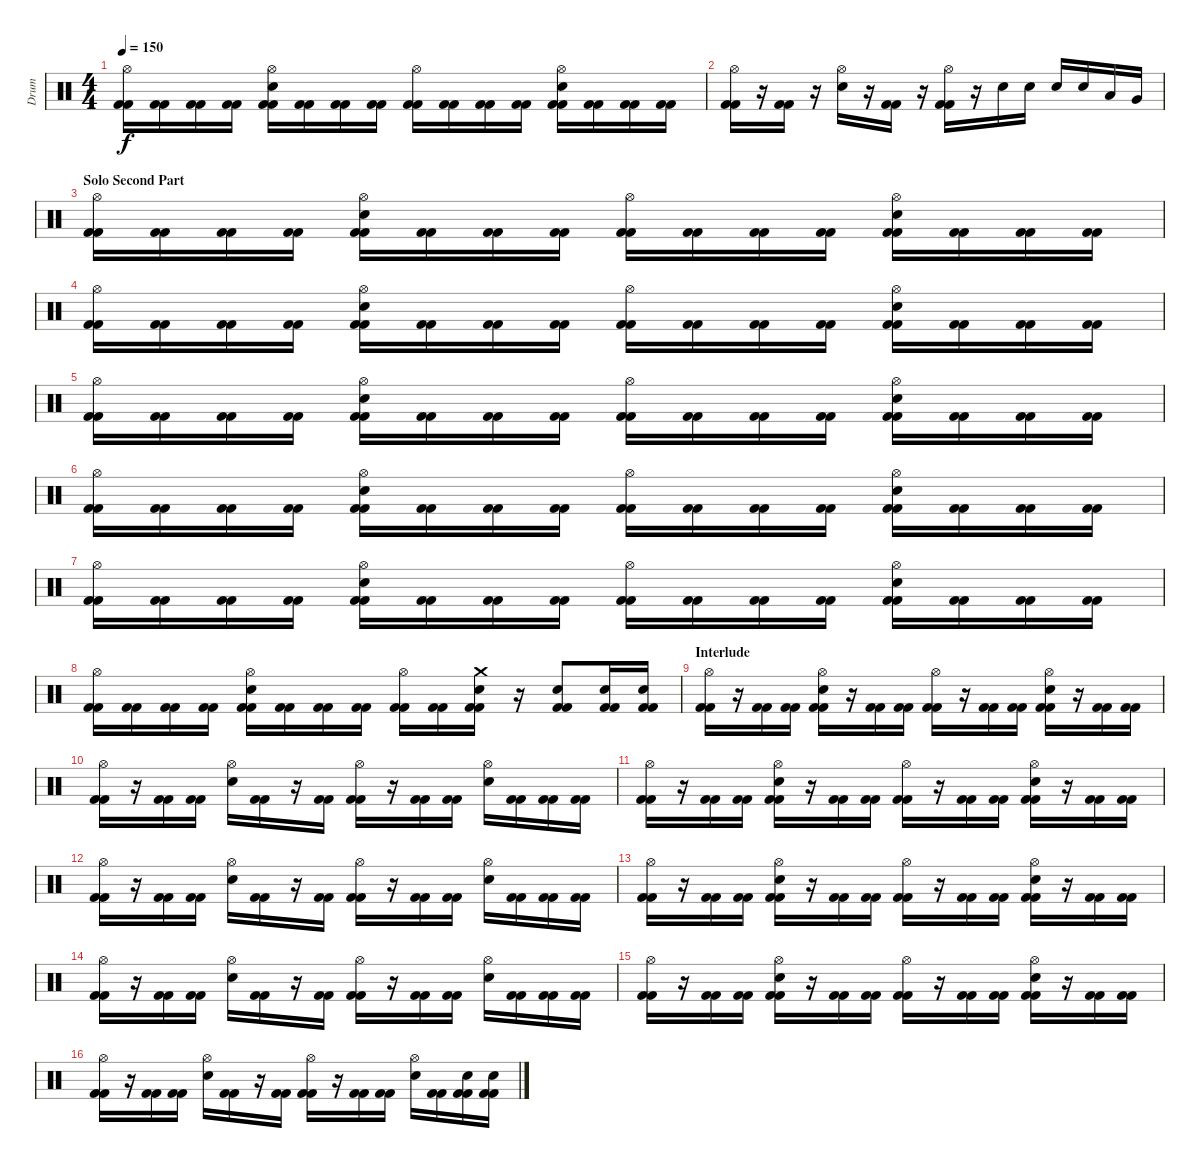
\track ("Drum" "Drum") {instrument percussion}
\staff {score}
\articulation defaults
\ts (4 4)
\tempo 150
\clef neutral
\ks c
("Hi-Hat (open)" "Kick (hit) 2" "Kick (hit) 2").16{dy f} ("Kick (hit) 2" "Kick (hit) 2").16 ("Kick (hit) 2" "Kick (hit) 2").16 ("Kick (hit) 2" "Kick (hit) 2").16 ("Snare (hit) 2" "Hi-Hat (open)" "Kick (hit) 2" "Kick (hit) 2").16 ("Kick (hit) 2" "Kick (hit) 2").16 ("Kick (hit) 2" "Kick (hit) 2").16 ("Kick (hit) 2" "Kick (hit) 2").16 ("Hi-Hat (open)" "Kick (hit) 2" "Kick (hit) 2").16 ("Kick (hit) 2" "Kick (hit) 2").16 ("Kick (hit) 2" "Kick (hit) 2").16 ("Kick (hit) 2" "Kick (hit) 2").16 ("Snare (hit) 2" "Hi-Hat (open)" "Kick (hit) 2" "Kick (hit) 2").16 ("Kick (hit) 2" "Kick (hit) 2").16 ("Kick (hit) 2" "Kick (hit) 2").16 ("Kick (hit) 2" "Kick (hit) 2").16 |
("Hi-Hat (open)" "Kick (hit) 2" "Kick (hit) 2").16 r.16 ("Kick (hit) 2" "Kick (hit) 2").16 r.16 ("Snare (hit) 2" "Hi-Hat (open)").16 r.16 ("Kick (hit) 2" "Kick (hit) 2").16 r.16 ("Hi-Hat (open)" "Kick (hit) 2" "Kick (hit) 2").16 r.16 "Snare (hit) 2".16 "Snare (hit) 2".16 "Snare (hit) 2".16 "Snare (hit) 2".16 "Low Tom (hit)".16 "Very Low Tom (hit)".16 |
\section ("" "Solo Second Part")
("Hi-Hat (open)" "Kick (hit) 2" "Kick (hit) 2").16 ("Kick (hit) 2" "Kick (hit) 2").16 ("Kick (hit) 2" "Kick (hit) 2").16 ("Kick (hit) 2" "Kick (hit) 2").16 ("Snare (hit) 2" "Hi-Hat (open)" "Kick (hit) 2" "Kick (hit) 2").16 ("Kick (hit) 2" "Kick (hit) 2").16 ("Kick (hit) 2" "Kick (hit) 2").16 ("Kick (hit) 2" "Kick (hit) 2").16 ("Hi-Hat (open)" "Kick (hit) 2" "Kick (hit) 2").16 ("Kick (hit) 2" "Kick (hit) 2").16 ("Kick (hit) 2" "Kick (hit) 2").16 ("Kick (hit) 2" "Kick (hit) 2").16 ("Snare (hit) 2" "Hi-Hat (open)" "Kick (hit) 2" "Kick (hit) 2").16 ("Kick (hit) 2" "Kick (hit) 2").16 ("Kick (hit) 2" "Kick (hit) 2").16 ("Kick (hit) 2" "Kick (hit) 2").16 |
("Hi-Hat (open)" "Kick (hit) 2" "Kick (hit) 2").16 ("Kick (hit) 2" "Kick (hit) 2").16 ("Kick (hit) 2" "Kick (hit) 2").16 ("Kick (hit) 2" "Kick (hit) 2").16 ("Snare (hit) 2" "Hi-Hat (open)" "Kick (hit) 2" "Kick (hit) 2").16 ("Kick (hit) 2" "Kick (hit) 2").16 ("Kick (hit) 2" "Kick (hit) 2").16 ("Kick (hit) 2" "Kick (hit) 2").16 ("Hi-Hat (open)" "Kick (hit) 2" "Kick (hit) 2").16 ("Kick (hit) 2" "Kick (hit) 2").16 ("Kick (hit) 2" "Kick (hit) 2").16 ("Kick (hit) 2" "Kick (hit) 2").16 ("Snare (hit) 2" "Hi-Hat (open)" "Kick (hit) 2" "Kick (hit) 2").16 ("Kick (hit) 2" "Kick (hit) 2").16 ("Kick (hit) 2" "Kick (hit) 2").16 ("Kick (hit) 2" "Kick (hit) 2").16 |
("Hi-Hat (open)" "Kick (hit) 2" "Kick (hit) 2").16 ("Kick (hit) 2" "Kick (hit) 2").16 ("Kick (hit) 2" "Kick (hit) 2").16 ("Kick (hit) 2" "Kick (hit) 2").16 ("Snare (hit) 2" "Hi-Hat (open)" "Kick (hit) 2" "Kick (hit) 2").16 ("Kick (hit) 2" "Kick (hit) 2").16 ("Kick (hit) 2" "Kick (hit) 2").16 ("Kick (hit) 2" "Kick (hit) 2").16 ("Hi-Hat (open)" "Kick (hit) 2" "Kick (hit) 2").16 ("Kick (hit) 2" "Kick (hit) 2").16 ("Kick (hit) 2" "Kick (hit) 2").16 ("Kick (hit) 2" "Kick (hit) 2").16 ("Snare (hit) 2" "Hi-Hat (open)" "Kick (hit) 2" "Kick (hit) 2").16 ("Kick (hit) 2" "Kick (hit) 2").16 ("Kick (hit) 2" "Kick (hit) 2").16 ("Kick (hit) 2" "Kick (hit) 2").16 |
("Hi-Hat (open)" "Kick (hit) 2" "Kick (hit) 2").16 ("Kick (hit) 2" "Kick (hit) 2").16 ("Kick (hit) 2" "Kick (hit) 2").16 ("Kick (hit) 2" "Kick (hit) 2").16 ("Snare (hit) 2" "Hi-Hat (open)" "Kick (hit) 2" "Kick (hit) 2").16 ("Kick (hit) 2" "Kick (hit) 2").16 ("Kick (hit) 2" "Kick (hit) 2").16 ("Kick (hit) 2" "Kick (hit) 2").16 ("Hi-Hat (open)" "Kick (hit) 2" "Kick (hit) 2").16 ("Kick (hit) 2" "Kick (hit) 2").16 ("Kick (hit) 2" "Kick (hit) 2").16 ("Kick (hit) 2" "Kick (hit) 2").16 ("Snare (hit) 2" "Hi-Hat (open)" "Kick (hit) 2" "Kick (hit) 2").16 ("Kick (hit) 2" "Kick (hit) 2").16 ("Kick (hit) 2" "Kick (hit) 2").16 ("Kick (hit) 2" "Kick (hit) 2").16 |
("Hi-Hat (open)" "Kick (hit) 2" "Kick (hit) 2").16 ("Kick (hit) 2" "Kick (hit) 2").16 ("Kick (hit) 2" "Kick (hit) 2").16 ("Kick (hit) 2" "Kick (hit) 2").16 ("Snare (hit) 2" "Hi-Hat (open)" "Kick (hit) 2" "Kick (hit) 2").16 ("Kick (hit) 2" "Kick (hit) 2").16 ("Kick (hit) 2" "Kick (hit) 2").16 ("Kick (hit) 2" "Kick (hit) 2").16 ("Hi-Hat (open)" "Kick (hit) 2" "Kick (hit) 2").16 ("Kick (hit) 2" "Kick (hit) 2").16 ("Kick (hit) 2" "Kick (hit) 2").16 ("Kick (hit) 2" "Kick (hit) 2").16 ("Snare (hit) 2" "Hi-Hat (open)" "Kick (hit) 2" "Kick (hit) 2").16 ("Kick (hit) 2" "Kick (hit) 2").16 ("Kick (hit) 2" "Kick (hit) 2").16 ("Kick (hit) 2" "Kick (hit) 2").16 |
("Hi-Hat (open)" "Kick (hit) 2" "Kick (hit) 2").16 ("Kick (hit) 2" "Kick (hit) 2").16 ("Kick (hit) 2" "Kick (hit) 2").16 ("Kick (hit) 2" "Kick (hit) 2").16 ("Snare (hit) 2" "Hi-Hat (open)" "Kick (hit) 2" "Kick (hit) 2").16 ("Kick (hit) 2" "Kick (hit) 2").16 ("Kick (hit) 2" "Kick (hit) 2").16 ("Kick (hit) 2" "Kick (hit) 2").16 ("Hi-Hat (open)" "Kick (hit) 2" "Kick (hit) 2").16 ("Kick (hit) 2" "Kick (hit) 2").16 ("Crash medium (hit)" "Snare (hit) 2" "Kick (hit) 2" "Kick (hit) 2").16 r.16 ("Snare (hit) 2" "Kick (hit) 2" "Kick (hit) 2").8 ("Snare (hit) 2" "Kick (hit) 2" "Kick (hit) 2").16 ("Snare (hit) 2" "Kick (hit) 2" "Kick (hit) 2").16 |
\section ("" "Interlude")
("Hi-Hat (open)" "Kick (hit) 2" "Kick (hit) 2").16 r.16 ("Kick (hit) 2" "Kick (hit) 2").16 ("Kick (hit) 2" "Kick (hit) 2").16 ("Snare (hit) 2" "Hi-Hat (open)" "Kick (hit) 2" "Kick (hit) 2").16 r.16 ("Kick (hit) 2" "Kick (hit) 2").16 ("Kick (hit) 2" "Kick (hit) 2").16 ("Hi-Hat (open)" "Kick (hit) 2" "Kick (hit) 2").16 r.16 ("Kick (hit) 2" "Kick (hit) 2").16 ("Kick (hit) 2" "Kick (hit) 2").16 ("Snare (hit) 2" "Hi-Hat (open)" "Kick (hit) 2" "Kick (hit) 2").16 r.16 ("Kick (hit) 2" "Kick (hit) 2").16 ("Kick (hit) 2" "Kick (hit) 2").16 |
("Hi-Hat (open)" "Kick (hit) 2" "Kick (hit) 2").16 r.16 ("Kick (hit) 2" "Kick (hit) 2").16 ("Kick (hit) 2" "Kick (hit) 2").16 ("Snare (hit) 2" "Hi-Hat (open)").16 ("Kick (hit) 2" "Kick (hit) 2").16 r.16 ("Kick (hit) 2" "Kick (hit) 2").16 ("Hi-Hat (open)" "Kick (hit) 2" "Kick (hit) 2").16 r.16 ("Kick (hit) 2" "Kick (hit) 2").16 ("Kick (hit) 2" "Kick (hit) 2").16 ("Snare (hit) 2" "Hi-Hat (open)").16 ("Kick (hit) 2" "Kick (hit) 2").16 ("Kick (hit) 2" "Kick (hit) 2").16 ("Kick (hit) 2" "Kick (hit) 2").16 |
("Hi-Hat (open)" "Kick (hit) 2" "Kick (hit) 2").16 r.16 ("Kick (hit) 2" "Kick (hit) 2").16 ("Kick (hit) 2" "Kick (hit) 2").16 ("Snare (hit) 2" "Hi-Hat (open)" "Kick (hit) 2" "Kick (hit) 2").16 r.16 ("Kick (hit) 2" "Kick (hit) 2").16 ("Kick (hit) 2" "Kick (hit) 2").16 ("Hi-Hat (open)" "Kick (hit) 2" "Kick (hit) 2").16 r.16 ("Kick (hit) 2" "Kick (hit) 2").16 ("Kick (hit) 2" "Kick (hit) 2").16 ("Snare (hit) 2" "Hi-Hat (open)" "Kick (hit) 2" "Kick (hit) 2").16 r.16 ("Kick (hit) 2" "Kick (hit) 2").16 ("Kick (hit) 2" "Kick (hit) 2").16 |
("Hi-Hat (open)" "Kick (hit) 2" "Kick (hit) 2").16 r.16 ("Kick (hit) 2" "Kick (hit) 2").16 ("Kick (hit) 2" "Kick (hit) 2").16 ("Snare (hit) 2" "Hi-Hat (open)").16 ("Kick (hit) 2" "Kick (hit) 2").16 r.16 ("Kick (hit) 2" "Kick (hit) 2").16 ("Hi-Hat (open)" "Kick (hit) 2" "Kick (hit) 2").16 r.16 ("Kick (hit) 2" "Kick (hit) 2").16 ("Kick (hit) 2" "Kick (hit) 2").16 ("Snare (hit) 2" "Hi-Hat (open)").16 ("Kick (hit) 2" "Kick (hit) 2").16 ("Kick (hit) 2" "Kick (hit) 2").16 ("Kick (hit) 2" "Kick (hit) 2").16 |
("Hi-Hat (open)" "Kick (hit) 2" "Kick (hit) 2").16 r.16 ("Kick (hit) 2" "Kick (hit) 2").16 ("Kick (hit) 2" "Kick (hit) 2").16 ("Snare (hit) 2" "Hi-Hat (open)" "Kick (hit) 2" "Kick (hit) 2").16 r.16 ("Kick (hit) 2" "Kick (hit) 2").16 ("Kick (hit) 2" "Kick (hit) 2").16 ("Hi-Hat (open)" "Kick (hit) 2" "Kick (hit) 2").16 r.16 ("Kick (hit) 2" "Kick (hit) 2").16 ("Kick (hit) 2" "Kick (hit) 2").16 ("Snare (hit) 2" "Hi-Hat (open)" "Kick (hit) 2" "Kick (hit) 2").16 r.16 ("Kick (hit) 2" "Kick (hit) 2").16 ("Kick (hit) 2" "Kick (hit) 2").16 |
("Hi-Hat (open)" "Kick (hit) 2" "Kick (hit) 2").16 r.16 ("Kick (hit) 2" "Kick (hit) 2").16 ("Kick (hit) 2" "Kick (hit) 2").16 ("Snare (hit) 2" "Hi-Hat (open)").16 ("Kick (hit) 2" "Kick (hit) 2").16 r.16 ("Kick (hit) 2" "Kick (hit) 2").16 ("Hi-Hat (open)" "Kick (hit) 2" "Kick (hit) 2").16 r.16 ("Kick (hit) 2" "Kick (hit) 2").16 ("Kick (hit) 2" "Kick (hit) 2").16 ("Snare (hit) 2" "Hi-Hat (open)").16 ("Kick (hit) 2" "Kick (hit) 2").16 ("Kick (hit) 2" "Kick (hit) 2").16 ("Kick (hit) 2" "Kick (hit) 2").16 |
("Hi-Hat (open)" "Kick (hit) 2" "Kick (hit) 2").16 r.16 ("Kick (hit) 2" "Kick (hit) 2").16 ("Kick (hit) 2" "Kick (hit) 2").16 ("Snare (hit) 2" "Hi-Hat (open)" "Kick (hit) 2" "Kick (hit) 2").16 r.16 ("Kick (hit) 2" "Kick (hit) 2").16 ("Kick (hit) 2" "Kick (hit) 2").16 ("Hi-Hat (open)" "Kick (hit) 2" "Kick (hit) 2").16 r.16 ("Kick (hit) 2" "Kick (hit) 2").16 ("Kick (hit) 2" "Kick (hit) 2").16 ("Snare (hit) 2" "Hi-Hat (open)" "Kick (hit) 2" "Kick (hit) 2").16 r.16 ("Kick (hit) 2" "Kick (hit) 2").16 ("Kick (hit) 2" "Kick (hit) 2").16 |
("Hi-Hat (open)" "Kick (hit) 2" "Kick (hit) 2").16 r.16 ("Kick (hit) 2" "Kick (hit) 2").16 ("Kick (hit) 2" "Kick (hit) 2").16 ("Snare (hit) 2" "Hi-Hat (open)").16 ("Kick (hit) 2" "Kick (hit) 2").16 r.16 ("Kick (hit) 2" "Kick (hit) 2").16 ("Hi-Hat (open)" "Kick (hit) 2" "Kick (hit) 2").16 r.16 ("Kick (hit) 2" "Kick (hit) 2").16 ("Kick (hit) 2" "Kick (hit) 2").16 ("Snare (hit) 2" "Hi-Hat (open)").16 ("Kick (hit) 2" "Kick (hit) 2").16 ("Snare (hit) 2" "Kick (hit) 2" "Kick (hit) 2").16 ("Snare (hit) 2" "Kick (hit) 2" "Kick (hit) 2").16
